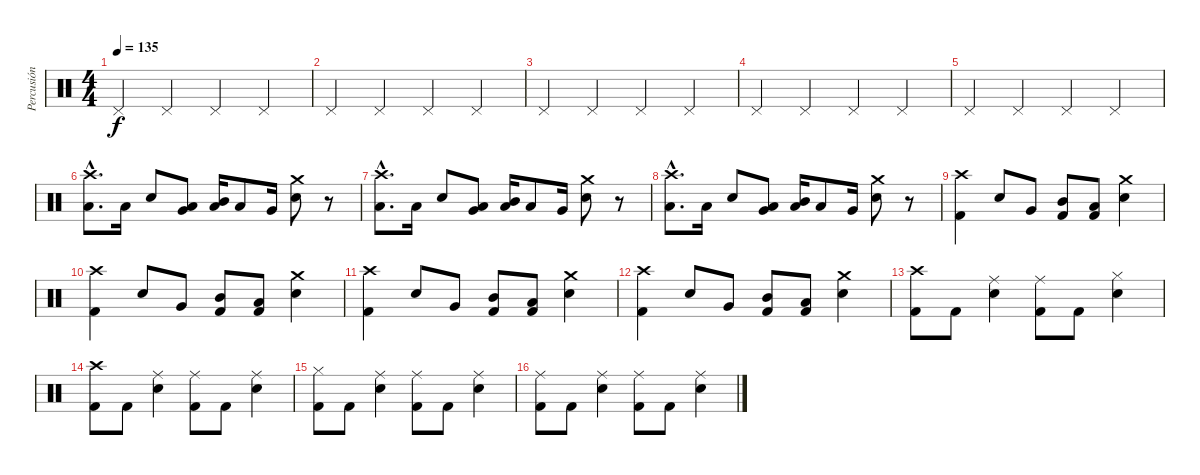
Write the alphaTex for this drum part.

\track ("Percusión" "Percusión") {instrument percussion}
\staff {score}
\articulation defaults
\ts (4 4)
\tempo 135
\clef neutral
\ks c "Pedal Hi-Hat (hit)".4{dy f} "Pedal Hi-Hat (hit)".4 "Pedal Hi-Hat (hit)".4 "Pedal Hi-Hat (hit)".4
|
"Pedal Hi-Hat (hit)".4 "Pedal Hi-Hat (hit)".4 "Pedal Hi-Hat (hit)".4 "Pedal Hi-Hat (hit)".4 |
"Pedal Hi-Hat (hit)".4 "Pedal Hi-Hat (hit)".4 "Pedal Hi-Hat (hit)".4 "Pedal Hi-Hat (hit)".4 |
"Pedal Hi-Hat (hit)".4 "Pedal Hi-Hat (hit)".4 "Pedal Hi-Hat (hit)".4 "Pedal Hi-Hat (hit)".4 |
"Pedal Hi-Hat (hit)".4 "Pedal Hi-Hat (hit)".4 "Pedal Hi-Hat (hit)".4 "Pedal Hi-Hat (hit)".4 |
("Crash high (hit)"{hac} "Low Tom (hit)"{hac}).8{d} "Low Tom (hit)".16 "Electric Snare (hit)".8 ("Very Low Tom (hit)" "Low Tom (hit)").8 ("Low Tom (hit)" "Mid Tom (hit)").16 "Low Tom (hit)".8 "Very Low Tom (hit)".16 ("Crash medium (hit)" "Electric Snare (hit)").8 r.8 |
("Crash high (hit)"{hac} "Low Tom (hit)"{hac}).8{d} "Low Tom (hit)".16 "Electric Snare (hit)".8 ("Very Low Tom (hit)" "Low Tom (hit)").8 ("Low Tom (hit)" "Mid Tom (hit)").16 "Low Tom (hit)".8 "Very Low Tom (hit)".16 ("Crash medium (hit)" "Electric Snare (hit)").8 r.8 |
("Crash high (hit)"{hac} "Low Tom (hit)"{hac}).8{d} "Low Tom (hit)".16 "Electric Snare (hit)".8 ("Very Low Tom (hit)" "Low Tom (hit)").8 ("Low Tom (hit)" "Mid Tom (hit)").16 "Low Tom (hit)".8 "Very Low Tom (hit)".16 ("Crash medium (hit)" "Electric Snare (hit)").8 r.8 |
("Crash high (hit)" "Kick (hit) 2").4 "Electric Snare (hit)".8 "Very Low Tom (hit)".8 ("Mid Tom (hit)" "Kick (hit) 2").8 ("Low Tom (hit)" "Kick (hit) 2").8 ("Crash medium (hit)" "Electric Snare (hit)").4 |
("Crash high (hit)" "Kick (hit) 2").4 "Electric Snare (hit)".8 "Very Low Tom (hit)".8 ("Mid Tom (hit)" "Kick (hit) 2").8 ("Low Tom (hit)" "Kick (hit) 2").8 ("Crash medium (hit)" "Electric Snare (hit)").4 |
("Crash high (hit)" "Kick (hit) 2").4 "Electric Snare (hit)".8 "Very Low Tom (hit)".8 ("Mid Tom (hit)" "Kick (hit) 2").8 ("Low Tom (hit)" "Kick (hit) 2").8 ("Crash medium (hit)" "Electric Snare (hit)").4 |
("Crash high (hit)" "Kick (hit) 2").4 "Electric Snare (hit)".8 "Very Low Tom (hit)".8 ("Mid Tom (hit)" "Kick (hit) 2").8 ("Low Tom (hit)" "Kick (hit) 2").8 ("Crash medium (hit)" "Electric Snare (hit)").4 |
("Crash high (hit)" "Kick (hit) 2").8 "Kick (hit) 2".8 ("Ride (middle)" "Electric Snare (hit)").4 ("Ride (middle)" "Kick (hit) 2").8 "Kick (hit) 2".8 ("Hi-Hat (closed)" "Electric Snare (hit)").4 |
("Crash high (hit)" "Kick (hit) 2").8 "Kick (hit) 2".8 ("Ride (middle)" "Electric Snare (hit)").4 ("Ride (middle)" "Kick (hit) 2").8 "Kick (hit) 2".8 ("Ride (middle)" "Electric Snare (hit)").4 |
("Hi-Hat (closed)" "Kick (hit) 2").8 "Kick (hit) 2".8 ("Ride (middle)" "Electric Snare (hit)").4 ("Ride (middle)" "Kick (hit) 2").8 "Kick (hit) 2".8 ("Ride (middle)" "Electric Snare (hit)").4 |
("Ride (middle)" "Kick (hit) 2").8 "Kick (hit) 2".8 ("Ride (middle)" "Electric Snare (hit)").4 ("Ride (middle)" "Kick (hit) 2").8 "Kick (hit) 2".8 ("Ride (middle)" "Electric Snare (hit)").4
